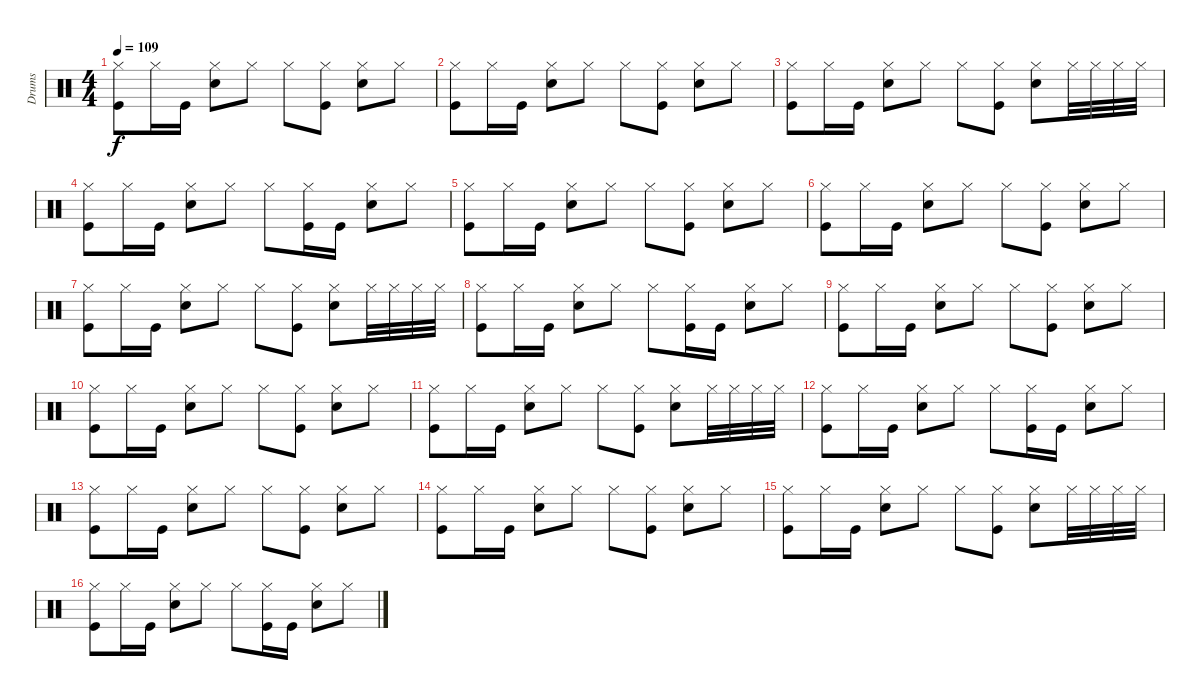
\track ("Drums" "Drums") {instrument percussion}
\staff {score}
\articulation defaults
\ts (4 4)
\tempo 109
\clef neutral
\ks c
("Hi-Hat (closed)" "Kick (hit)").8{dy f} "Hi-Hat (closed)".16 "Kick (hit)".16 ("Hi-Hat (closed)" "Snare (hit) 2").8 "Hi-Hat (closed)".8 "Hi-Hat (closed)".8 ("Hi-Hat (closed)" "Kick (hit)").8 ("Hi-Hat (closed)" "Snare (hit) 2").8 "Hi-Hat (closed)".8 |
("Hi-Hat (closed)" "Kick (hit)").8 "Hi-Hat (closed)".16 "Kick (hit)".16 ("Hi-Hat (closed)" "Snare (hit) 2").8 "Hi-Hat (closed)".8 "Hi-Hat (closed)".8 ("Hi-Hat (closed)" "Kick (hit)").8 ("Hi-Hat (closed)" "Snare (hit) 2").8 "Hi-Hat (closed)".8 |
("Hi-Hat (closed)" "Kick (hit)").8 "Hi-Hat (closed)".16 "Kick (hit)".16 ("Hi-Hat (closed)" "Snare (hit) 2").8 "Hi-Hat (closed)".8 "Hi-Hat (closed)".8 ("Hi-Hat (closed)" "Kick (hit)").8 ("Hi-Hat (closed)" "Snare (hit) 2").8 "Hi-Hat (closed)".32 "Hi-Hat (closed)".32 "Hi-Hat (closed)".32 "Hi-Hat (closed)".32 |
("Hi-Hat (closed)" "Kick (hit)").8 "Hi-Hat (closed)".16 "Kick (hit)".16 ("Hi-Hat (closed)" "Snare (hit) 2").8 "Hi-Hat (closed)".8 "Hi-Hat (closed)".8 ("Hi-Hat (closed)" "Kick (hit)").16 "Kick (hit)".16 ("Hi-Hat (closed)" "Snare (hit) 2").8 "Hi-Hat (closed)".8 |
("Hi-Hat (closed)" "Kick (hit)").8 "Hi-Hat (closed)".16 "Kick (hit)".16 ("Hi-Hat (closed)" "Snare (hit) 2").8 "Hi-Hat (closed)".8 "Hi-Hat (closed)".8 ("Hi-Hat (closed)" "Kick (hit)").8 ("Hi-Hat (closed)" "Snare (hit) 2").8 "Hi-Hat (closed)".8 |
("Hi-Hat (closed)" "Kick (hit)").8 "Hi-Hat (closed)".16 "Kick (hit)".16 ("Hi-Hat (closed)" "Snare (hit) 2").8 "Hi-Hat (closed)".8 "Hi-Hat (closed)".8 ("Hi-Hat (closed)" "Kick (hit)").8 ("Hi-Hat (closed)" "Snare (hit) 2").8 "Hi-Hat (closed)".8 |
("Hi-Hat (closed)" "Kick (hit)").8 "Hi-Hat (closed)".16 "Kick (hit)".16 ("Hi-Hat (closed)" "Snare (hit) 2").8 "Hi-Hat (closed)".8 "Hi-Hat (closed)".8 ("Hi-Hat (closed)" "Kick (hit)").8 ("Hi-Hat (closed)" "Snare (hit) 2").8 "Hi-Hat (closed)".32 "Hi-Hat (closed)".32 "Hi-Hat (closed)".32 "Hi-Hat (closed)".32 |
("Hi-Hat (closed)" "Kick (hit)").8 "Hi-Hat (closed)".16 "Kick (hit)".16 ("Hi-Hat (closed)" "Snare (hit) 2").8 "Hi-Hat (closed)".8 "Hi-Hat (closed)".8 ("Hi-Hat (closed)" "Kick (hit)").16 "Kick (hit)".16 ("Hi-Hat (closed)" "Snare (hit) 2").8 "Hi-Hat (closed)".8 |
("Hi-Hat (closed)" "Kick (hit)").8 "Hi-Hat (closed)".16 "Kick (hit)".16 ("Hi-Hat (closed)" "Snare (hit) 2").8 "Hi-Hat (closed)".8 "Hi-Hat (closed)".8 ("Hi-Hat (closed)" "Kick (hit)").8 ("Hi-Hat (closed)" "Snare (hit) 2").8 "Hi-Hat (closed)".8 |
("Hi-Hat (closed)" "Kick (hit)").8 "Hi-Hat (closed)".16 "Kick (hit)".16 ("Hi-Hat (closed)" "Snare (hit) 2").8 "Hi-Hat (closed)".8 "Hi-Hat (closed)".8 ("Hi-Hat (closed)" "Kick (hit)").8 ("Hi-Hat (closed)" "Snare (hit) 2").8 "Hi-Hat (closed)".8 |
("Hi-Hat (closed)" "Kick (hit)").8 "Hi-Hat (closed)".16 "Kick (hit)".16 ("Hi-Hat (closed)" "Snare (hit) 2").8 "Hi-Hat (closed)".8 "Hi-Hat (closed)".8 ("Hi-Hat (closed)" "Kick (hit)").8 ("Hi-Hat (closed)" "Snare (hit) 2").8 "Hi-Hat (closed)".32 "Hi-Hat (closed)".32 "Hi-Hat (closed)".32 "Hi-Hat (closed)".32 |
("Hi-Hat (closed)" "Kick (hit)").8 "Hi-Hat (closed)".16 "Kick (hit)".16 ("Hi-Hat (closed)" "Snare (hit) 2").8 "Hi-Hat (closed)".8 "Hi-Hat (closed)".8 ("Hi-Hat (closed)" "Kick (hit)").16 "Kick (hit)".16 ("Hi-Hat (closed)" "Snare (hit) 2").8 "Hi-Hat (closed)".8 |
("Hi-Hat (closed)" "Kick (hit)").8 "Hi-Hat (closed)".16 "Kick (hit)".16 ("Hi-Hat (closed)" "Snare (hit) 2").8 "Hi-Hat (closed)".8 "Hi-Hat (closed)".8 ("Hi-Hat (closed)" "Kick (hit)").8 ("Hi-Hat (closed)" "Snare (hit) 2").8 "Hi-Hat (closed)".8 |
("Hi-Hat (closed)" "Kick (hit)").8 "Hi-Hat (closed)".16 "Kick (hit)".16 ("Hi-Hat (closed)" "Snare (hit) 2").8 "Hi-Hat (closed)".8 "Hi-Hat (closed)".8 ("Hi-Hat (closed)" "Kick (hit)").8 ("Hi-Hat (closed)" "Snare (hit) 2").8 "Hi-Hat (closed)".8 |
("Hi-Hat (closed)" "Kick (hit)").8 "Hi-Hat (closed)".16 "Kick (hit)".16 ("Hi-Hat (closed)" "Snare (hit) 2").8 "Hi-Hat (closed)".8 "Hi-Hat (closed)".8 ("Hi-Hat (closed)" "Kick (hit)").8 ("Hi-Hat (closed)" "Snare (hit) 2").8 "Hi-Hat (closed)".32 "Hi-Hat (closed)".32 "Hi-Hat (closed)".32 "Hi-Hat (closed)".32 |
("Hi-Hat (closed)" "Kick (hit)").8 "Hi-Hat (closed)".16 "Kick (hit)".16 ("Hi-Hat (closed)" "Snare (hit) 2").8 "Hi-Hat (closed)".8 "Hi-Hat (closed)".8 ("Hi-Hat (closed)" "Kick (hit)").16 "Kick (hit)".16 ("Hi-Hat (closed)" "Snare (hit) 2").8 "Hi-Hat (closed)".8
